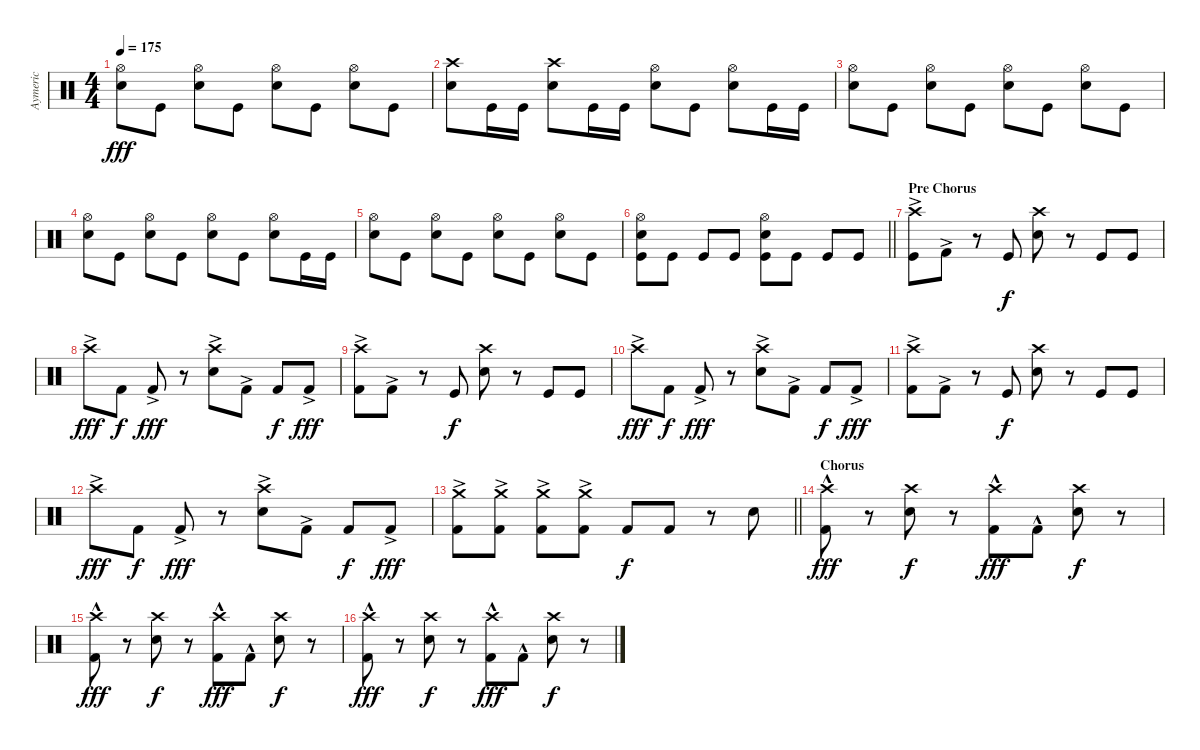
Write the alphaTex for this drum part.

\track ("Aymeric" "Aymeric") {instrument percussion}
\staff {score}
\articulation defaults
\ts (4 4)
\tempo 175
\clef neutral
\ks c
("Hi-Hat (open)" "Snare (hit) 2").8{dy fff} "Kick (hit)".8 ("Hi-Hat (open)" "Snare (hit) 2").8 "Kick (hit)".8 ("Hi-Hat (open)" "Snare (hit) 2").8 "Kick (hit)".8 ("Hi-Hat (open)" "Snare (hit) 2").8 "Kick (hit)".8 |
("Crash high (hit)" "Snare (hit) 2").8 "Kick (hit)".16 "Kick (hit)".16 ("Crash high (hit)" "Snare (hit) 2").8 "Kick (hit)".16 "Kick (hit)".16 ("Hi-Hat (open)" "Snare (hit) 2").8 "Kick (hit)".8 ("Hi-Hat (open)" "Snare (hit) 2").8 "Kick (hit)".16 "Kick (hit)".16 |
("Hi-Hat (open)" "Snare (hit) 2").8 "Kick (hit)".8 ("Hi-Hat (open)" "Snare (hit) 2").8 "Kick (hit)".8 ("Hi-Hat (open)" "Snare (hit) 2").8 "Kick (hit)".8 ("Hi-Hat (open)" "Snare (hit) 2").8 "Kick (hit)".8 |
("Hi-Hat (open)" "Snare (hit) 2").8 "Kick (hit)".8 ("Hi-Hat (open)" "Snare (hit) 2").8 "Kick (hit)".8 ("Hi-Hat (open)" "Snare (hit) 2").8 "Kick (hit)".8 ("Hi-Hat (open)" "Snare (hit) 2").8 "Kick (hit)".16 "Kick (hit)".16 |
("Hi-Hat (open)" "Snare (hit) 2").8 "Kick (hit)".8 ("Hi-Hat (open)" "Snare (hit) 2").8 "Kick (hit)".8 ("Hi-Hat (open)" "Snare (hit) 2").8 "Kick (hit)".8 ("Hi-Hat (open)" "Snare (hit) 2").8 "Kick (hit)".8 |
\barLineRight lightlight
("Hi-Hat (open)" "Snare (hit) 2" "Kick (hit)").8 "Kick (hit)".8 "Kick (hit)".8 "Kick (hit)".8 ("Hi-Hat (open)" "Snare (hit) 2" "Kick (hit)").8 "Kick (hit)".8 "Kick (hit)".8 "Kick (hit)".8 |
\section ("" "Pre Chorus")
("Crash high (hit)"{ac} "Kick (hit)"{ac}).8 "Kick (hit) 2"{ac}.8 r.8 "Kick (hit)".8{dy f} ("Crash high (hit)" "Snare (hit) 2").8 r.8 "Kick (hit)".8 "Kick (hit)".8 |
"Crash high (hit)"{ac}.8{dy fff} "Kick (hit) 2".8{dy f} "Kick (hit) 2"{ac}.8{dy fff} r.8 ("Crash high (hit)"{ac} "Snare (hit) 2").8 "Kick (hit) 2"{ac}.8 "Kick (hit) 2".8{dy f} "Kick (hit) 2"{ac}.8{dy fff} |
("Crash high (hit)"{ac} "Kick (hit) 2"{ac}).8 "Kick (hit) 2"{ac}.8 r.8 "Kick (hit)".8{dy f} ("Crash high (hit)" "Snare (hit) 2").8 r.8 "Kick (hit)".8 "Kick (hit)".8 |
"Crash high (hit)"{ac}.8{dy fff} "Kick (hit) 2".8{dy f} "Kick (hit) 2"{ac}.8{dy fff} r.8 ("Crash high (hit)"{ac} "Snare (hit) 2").8 "Kick (hit) 2"{ac}.8 "Kick (hit) 2".8{dy f} "Kick (hit) 2"{ac}.8{dy fff} |
("Crash high (hit)"{ac} "Kick (hit) 2"{ac}).8 "Kick (hit) 2"{ac}.8 r.8 "Kick (hit)".8{dy f} ("Crash high (hit)" "Snare (hit) 2").8 r.8 "Kick (hit)".8 "Kick (hit)".8 |
"Crash high (hit)"{ac}.8{dy fff} "Kick (hit) 2".8{dy f} "Kick (hit) 2"{ac}.8{dy fff} r.8 ("Crash high (hit)"{ac} "Snare (hit) 2").8 "Kick (hit) 2"{ac}.8 "Kick (hit) 2".8{dy f} "Kick (hit) 2"{ac}.8{dy fff} |
\barLineRight lightlight
("Crash medium (hit)"{ac} "Kick (hit) 2"{ac}).8 ("Crash medium (hit)"{ac} "Kick (hit) 2"{ac}).8 ("Crash medium (hit)"{ac} "Kick (hit) 2"{ac}).8 ("Crash medium (hit)"{ac} "Kick (hit) 2"{ac}).8 "Kick (hit) 2".8{dy f} "Kick (hit) 2".8 r.8 "Snare (hit) 2".8 |
\section ("" "Chorus")
("Crash high (hit)" "Kick (hit) 2"{hac}).8{dy fff} r.8 ("Crash high (hit)" "Snare (hit) 2").8{dy f} r.8 ("Crash high (hit)" "Kick (hit) 2"{hac}).8{dy fff} "Kick (hit) 2"{hac}.8 ("Crash high (hit)" "Snare (hit) 2").8{dy f} r.8 |
("Crash high (hit)" "Kick (hit) 2"{hac}).8{dy fff} r.8 ("Crash high (hit)" "Snare (hit) 2").8{dy f} r.8 ("Crash high (hit)" "Kick (hit) 2"{hac}).8{dy fff} "Kick (hit) 2"{hac}.8 ("Crash high (hit)" "Snare (hit) 2").8{dy f} r.8 |
("Crash high (hit)" "Kick (hit) 2"{hac}).8{dy fff} r.8 ("Crash high (hit)" "Snare (hit) 2").8{dy f} r.8 ("Crash high (hit)" "Kick (hit) 2"{hac}).8{dy fff} "Kick (hit) 2"{hac}.8 ("Crash high (hit)" "Snare (hit) 2").8{dy f} r.8
